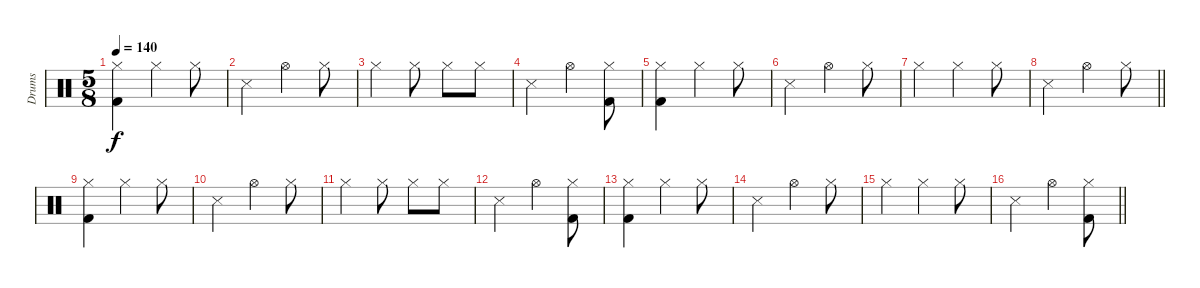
\track ("Drums" "Drums") {instrument percussion}
\staff {score}
\articulation defaults
\ts (5 8)
\tempo 140
\clef neutral
\ks c
("Hi-Hat (closed)" "Kick (hit) 2").4{dy f} "Hi-Hat (closed)".4 "Hi-Hat (closed)".8 |
"Snare (side stick) 3".4 "Hi-Hat (open)".4 "Hi-Hat (closed)".8 |
"Hi-Hat (closed)".4 "Hi-Hat (closed)".8 "Hi-Hat (closed)".8 "Hi-Hat (closed)".8 |
"Snare (side stick) 3".4 "Hi-Hat (open)".4 ("Hi-Hat (closed)" "Kick (hit) 2").8 |
("Hi-Hat (closed)" "Kick (hit) 2").4 "Hi-Hat (closed)".4 "Hi-Hat (closed)".8 |
"Snare (side stick) 3".4 "Hi-Hat (open)".4 "Hi-Hat (closed)".8 |
"Hi-Hat (closed)".4 "Hi-Hat (closed)".4 "Hi-Hat (closed)".8 |
\barLineRight lightlight "Snare (side stick) 3".4 "Hi-Hat (open)".4 "Hi-Hat (closed)".8
|
("Hi-Hat (closed)" "Kick (hit) 2").4 "Hi-Hat (closed)".4 "Hi-Hat (closed)".8 |
"Snare (side stick) 3".4 "Hi-Hat (open)".4 "Hi-Hat (closed)".8 |
"Hi-Hat (closed)".4 "Hi-Hat (closed)".8 "Hi-Hat (closed)".8 "Hi-Hat (closed)".8 |
"Snare (side stick) 3".4 "Hi-Hat (open)".4 ("Hi-Hat (closed)" "Kick (hit) 2").8 |
("Hi-Hat (closed)" "Kick (hit) 2").4 "Hi-Hat (closed)".4 "Hi-Hat (closed)".8 |
"Snare (side stick) 3".4 "Hi-Hat (open)".4 "Hi-Hat (closed)".8 |
"Hi-Hat (closed)".4 "Hi-Hat (closed)".4 "Hi-Hat (closed)".8 |
\barLineRight lightlight "Snare (side stick) 3".4 "Hi-Hat (open)".4
("Hi-Hat (closed)" "Kick (hit) 2").8
